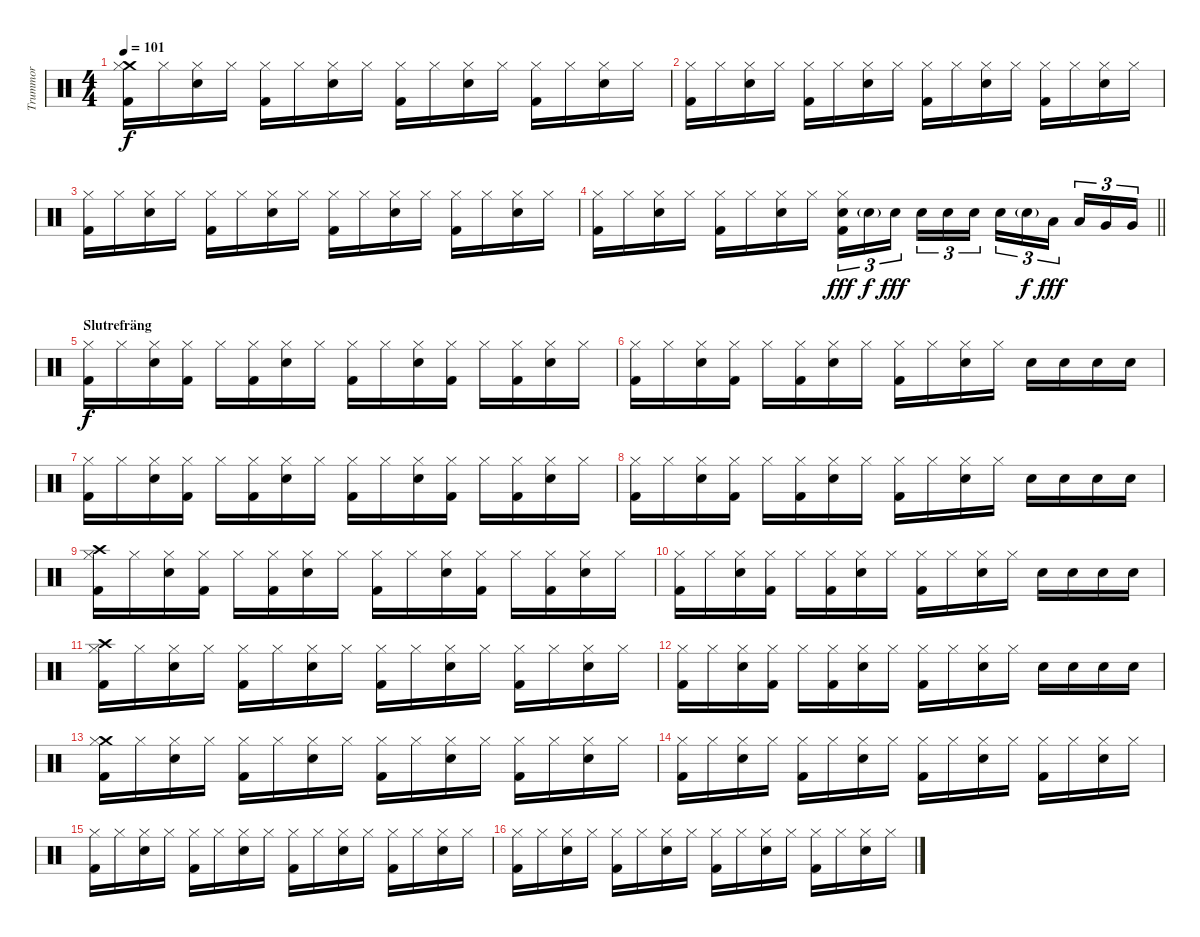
\track ("Trummor" "Trummor") {instrument percussion}
\staff {score}
\articulation defaults
\ts (4 4)
\tempo 101
\clef neutral
\ks c
("Crash medium (hit)" "Hi-Hat (closed)" "Kick (hit) 2").16{dy f} "Hi-Hat (closed)".16 ("Hi-Hat (closed)" "Electric Snare (hit)").16 "Hi-Hat (closed)".16 ("Hi-Hat (closed)" "Kick (hit) 2").16 "Hi-Hat (closed)".16 ("Hi-Hat (closed)" "Electric Snare (hit)").16 "Hi-Hat (closed)".16 ("Hi-Hat (closed)" "Kick (hit) 2").16 "Hi-Hat (closed)".16 ("Hi-Hat (closed)" "Electric Snare (hit)").16 "Hi-Hat (closed)".16 ("Hi-Hat (closed)" "Kick (hit) 2").16 "Hi-Hat (closed)".16 ("Hi-Hat (closed)" "Electric Snare (hit)").16 "Hi-Hat (closed)".16 |
("Hi-Hat (closed)" "Kick (hit) 2").16 "Hi-Hat (closed)".16 ("Hi-Hat (closed)" "Electric Snare (hit)").16 "Hi-Hat (closed)".16 ("Hi-Hat (closed)" "Kick (hit) 2").16 "Hi-Hat (closed)".16 ("Hi-Hat (closed)" "Electric Snare (hit)").16 "Hi-Hat (closed)".16 ("Hi-Hat (closed)" "Kick (hit) 2").16 "Hi-Hat (closed)".16 ("Hi-Hat (closed)" "Electric Snare (hit)").16 "Hi-Hat (closed)".16 ("Hi-Hat (closed)" "Kick (hit) 2").16 "Hi-Hat (closed)".16 ("Hi-Hat (closed)" "Electric Snare (hit)").16 "Hi-Hat (closed)".16 |
("Hi-Hat (closed)" "Kick (hit) 2").16 "Hi-Hat (closed)".16 ("Hi-Hat (closed)" "Electric Snare (hit)").16 "Hi-Hat (closed)".16 ("Hi-Hat (closed)" "Kick (hit) 2").16 "Hi-Hat (closed)".16 ("Hi-Hat (closed)" "Electric Snare (hit)").16 "Hi-Hat (closed)".16 ("Hi-Hat (closed)" "Kick (hit) 2").16 "Hi-Hat (closed)".16 ("Hi-Hat (closed)" "Electric Snare (hit)").16 "Hi-Hat (closed)".16 ("Hi-Hat (closed)" "Kick (hit) 2").16 "Hi-Hat (closed)".16 ("Hi-Hat (closed)" "Electric Snare (hit)").16 "Hi-Hat (closed)".16 |
\barLineRight lightlight
("Hi-Hat (closed)" "Kick (hit) 2").16 "Hi-Hat (closed)".16 ("Hi-Hat (closed)" "Electric Snare (hit)").16 "Hi-Hat (closed)".16 ("Hi-Hat (closed)" "Kick (hit) 2").16 "Hi-Hat (closed)".16 ("Hi-Hat (closed)" "Electric Snare (hit)").16 "Hi-Hat (closed)".16 ("Electric Snare (hit)" "Hi-Hat (closed)" "Kick (hit) 2").16{tu (3 2) dy fff} "Electric Snare (hit)"{g}.16{tu (3 2) dy f} "Electric Snare (hit)".16{tu (3 2) dy fff beam splitsecondary} "Electric Snare (hit)".16{tu (3 2)} "Electric Snare (hit)".16{tu (3 2)} "Electric Snare (hit)".16{tu (3 2)} "Snare (hit) 2".16{tu (3 2)} "Electric Snare (hit)"{g}.16{tu (3 2) dy f} "Low Tom (hit)".16{tu (3 2) dy fff beam splitsecondary} "Low Tom (hit)".16{tu (3 2)} "Very Low Tom (hit)".16{tu (3 2)} "Very Low Tom (hit)".16{tu (3 2)} |
\section ("" "Slutrefräng")
("Hi-Hat (closed)" "Kick (hit) 2").16{dy f} "Hi-Hat (closed)".16 ("Hi-Hat (closed)" "Electric Snare (hit)").16 ("Hi-Hat (closed)" "Kick (hit) 2").16 "Hi-Hat (closed)".16 ("Hi-Hat (closed)" "Kick (hit) 2").16 ("Hi-Hat (closed)" "Electric Snare (hit)").16 "Hi-Hat (closed)".16 ("Hi-Hat (closed)" "Kick (hit) 2").16 "Hi-Hat (closed)".16 ("Hi-Hat (closed)" "Electric Snare (hit)").16 ("Hi-Hat (closed)" "Kick (hit) 2").16 "Hi-Hat (closed)".16 ("Hi-Hat (closed)" "Kick (hit) 2").16 ("Hi-Hat (closed)" "Electric Snare (hit)").16 "Hi-Hat (closed)".16 |
("Hi-Hat (closed)" "Kick (hit) 2").16 "Hi-Hat (closed)".16 ("Hi-Hat (closed)" "Electric Snare (hit)").16 ("Hi-Hat (closed)" "Kick (hit) 2").16 "Hi-Hat (closed)".16 ("Hi-Hat (closed)" "Kick (hit) 2").16 ("Hi-Hat (closed)" "Electric Snare (hit)").16 "Hi-Hat (closed)".16 ("Hi-Hat (closed)" "Kick (hit) 2").16 "Hi-Hat (closed)".16 ("Hi-Hat (closed)" "Electric Snare (hit)").16 "Hi-Hat (closed)".16 "Electric Snare (hit)".16 "Electric Snare (hit)".16 "Electric Snare (hit)".16 "Electric Snare (hit)".16 |
("Hi-Hat (closed)" "Kick (hit) 2").16 "Hi-Hat (closed)".16 ("Hi-Hat (closed)" "Electric Snare (hit)").16 ("Hi-Hat (closed)" "Kick (hit) 2").16 "Hi-Hat (closed)".16 ("Hi-Hat (closed)" "Kick (hit) 2").16 ("Hi-Hat (closed)" "Electric Snare (hit)").16 "Hi-Hat (closed)".16 ("Hi-Hat (closed)" "Kick (hit) 2").16 "Hi-Hat (closed)".16 ("Hi-Hat (closed)" "Electric Snare (hit)").16 ("Hi-Hat (closed)" "Kick (hit) 2").16 "Hi-Hat (closed)".16 ("Hi-Hat (closed)" "Kick (hit) 2").16 ("Hi-Hat (closed)" "Electric Snare (hit)").16 "Hi-Hat (closed)".16 |
("Hi-Hat (closed)" "Kick (hit) 2").16 "Hi-Hat (closed)".16 ("Hi-Hat (closed)" "Electric Snare (hit)").16 ("Hi-Hat (closed)" "Kick (hit) 2").16 "Hi-Hat (closed)".16 ("Hi-Hat (closed)" "Kick (hit) 2").16 ("Hi-Hat (closed)" "Electric Snare (hit)").16 "Hi-Hat (closed)".16 ("Hi-Hat (closed)" "Kick (hit) 2").16 "Hi-Hat (closed)".16 ("Hi-Hat (closed)" "Electric Snare (hit)").16 "Hi-Hat (closed)".16 "Electric Snare (hit)".16 "Electric Snare (hit)".16 "Electric Snare (hit)".16 "Electric Snare (hit)".16 |
("Crash high (hit)" "Hi-Hat (closed)" "Kick (hit) 2").16 "Hi-Hat (closed)".16 ("Hi-Hat (closed)" "Electric Snare (hit)").16 ("Hi-Hat (closed)" "Kick (hit) 2").16 "Hi-Hat (closed)".16 ("Hi-Hat (closed)" "Kick (hit) 2").16 ("Hi-Hat (closed)" "Electric Snare (hit)").16 "Hi-Hat (closed)".16 ("Hi-Hat (closed)" "Kick (hit) 2").16 "Hi-Hat (closed)".16 ("Hi-Hat (closed)" "Electric Snare (hit)").16 ("Hi-Hat (closed)" "Kick (hit) 2").16 "Hi-Hat (closed)".16 ("Hi-Hat (closed)" "Kick (hit) 2").16 ("Hi-Hat (closed)" "Electric Snare (hit)").16 "Hi-Hat (closed)".16 |
("Hi-Hat (closed)" "Kick (hit) 2").16 "Hi-Hat (closed)".16 ("Hi-Hat (closed)" "Electric Snare (hit)").16 ("Hi-Hat (closed)" "Kick (hit) 2").16 "Hi-Hat (closed)".16 ("Hi-Hat (closed)" "Kick (hit) 2").16 ("Hi-Hat (closed)" "Electric Snare (hit)").16 "Hi-Hat (closed)".16 ("Hi-Hat (closed)" "Kick (hit) 2").16 "Hi-Hat (closed)".16 ("Hi-Hat (closed)" "Electric Snare (hit)").16 "Hi-Hat (closed)".16 "Electric Snare (hit)".16 "Electric Snare (hit)".16 "Electric Snare (hit)".16 "Electric Snare (hit)".16 |
("Crash high (hit)" "Hi-Hat (closed)" "Kick (hit) 2").16 "Hi-Hat (closed)".16 ("Hi-Hat (closed)" "Electric Snare (hit)").16 "Hi-Hat (closed)".16 ("Hi-Hat (closed)" "Kick (hit) 2").16 "Hi-Hat (closed)".16 ("Hi-Hat (closed)" "Electric Snare (hit)").16 "Hi-Hat (closed)".16 ("Hi-Hat (closed)" "Kick (hit) 2").16 "Hi-Hat (closed)".16 ("Hi-Hat (closed)" "Electric Snare (hit)").16 "Hi-Hat (closed)".16 ("Hi-Hat (closed)" "Kick (hit) 2").16 "Hi-Hat (closed)".16 ("Hi-Hat (closed)" "Electric Snare (hit)").16 "Hi-Hat (closed)".16 |
("Hi-Hat (closed)" "Kick (hit) 2").16 "Hi-Hat (closed)".16 ("Hi-Hat (closed)" "Electric Snare (hit)").16 ("Hi-Hat (closed)" "Kick (hit) 2").16 "Hi-Hat (closed)".16 ("Hi-Hat (closed)" "Kick (hit) 2").16 ("Hi-Hat (closed)" "Electric Snare (hit)").16 "Hi-Hat (closed)".16 ("Hi-Hat (closed)" "Kick (hit) 2").16 "Hi-Hat (closed)".16 ("Hi-Hat (closed)" "Electric Snare (hit)").16 "Hi-Hat (closed)".16 "Electric Snare (hit)".16 "Electric Snare (hit)".16 "Electric Snare (hit)".16 "Electric Snare (hit)".16 |
("Crash medium (hit)" "Hi-Hat (closed)" "Kick (hit) 2").16 "Hi-Hat (closed)".16 ("Hi-Hat (closed)" "Electric Snare (hit)").16 "Hi-Hat (closed)".16 ("Hi-Hat (closed)" "Kick (hit) 2").16 "Hi-Hat (closed)".16 ("Hi-Hat (closed)" "Electric Snare (hit)").16 "Hi-Hat (closed)".16 ("Hi-Hat (closed)" "Kick (hit) 2").16 "Hi-Hat (closed)".16 ("Hi-Hat (closed)" "Electric Snare (hit)").16 "Hi-Hat (closed)".16 ("Hi-Hat (closed)" "Kick (hit) 2").16 "Hi-Hat (closed)".16 ("Hi-Hat (closed)" "Electric Snare (hit)").16 "Hi-Hat (closed)".16 |
("Hi-Hat (closed)" "Kick (hit) 2").16 "Hi-Hat (closed)".16 ("Hi-Hat (closed)" "Electric Snare (hit)").16 "Hi-Hat (closed)".16 ("Hi-Hat (closed)" "Kick (hit) 2").16 "Hi-Hat (closed)".16 ("Hi-Hat (closed)" "Electric Snare (hit)").16 "Hi-Hat (closed)".16 ("Hi-Hat (closed)" "Kick (hit) 2").16 "Hi-Hat (closed)".16 ("Hi-Hat (closed)" "Electric Snare (hit)").16 "Hi-Hat (closed)".16 ("Hi-Hat (closed)" "Kick (hit) 2").16 "Hi-Hat (closed)".16 ("Hi-Hat (closed)" "Electric Snare (hit)").16 "Hi-Hat (closed)".16 |
("Hi-Hat (closed)" "Kick (hit) 2").16 "Hi-Hat (closed)".16 ("Hi-Hat (closed)" "Electric Snare (hit)").16 "Hi-Hat (closed)".16 ("Hi-Hat (closed)" "Kick (hit) 2").16 "Hi-Hat (closed)".16 ("Hi-Hat (closed)" "Electric Snare (hit)").16 "Hi-Hat (closed)".16 ("Hi-Hat (closed)" "Kick (hit) 2").16 "Hi-Hat (closed)".16 ("Hi-Hat (closed)" "Electric Snare (hit)").16 "Hi-Hat (closed)".16 ("Hi-Hat (closed)" "Kick (hit) 2").16 "Hi-Hat (closed)".16 ("Hi-Hat (closed)" "Electric Snare (hit)").16 "Hi-Hat (closed)".16 |
("Hi-Hat (closed)" "Kick (hit) 2").16 "Hi-Hat (closed)".16 ("Hi-Hat (closed)" "Electric Snare (hit)").16 "Hi-Hat (closed)".16 ("Hi-Hat (closed)" "Kick (hit) 2").16 "Hi-Hat (closed)".16 ("Hi-Hat (closed)" "Electric Snare (hit)").16 "Hi-Hat (closed)".16 ("Hi-Hat (closed)" "Kick (hit) 2").16 "Hi-Hat (closed)".16 ("Hi-Hat (closed)" "Electric Snare (hit)").16 "Hi-Hat (closed)".16 ("Hi-Hat (closed)" "Kick (hit) 2").16 "Hi-Hat (closed)".16 ("Hi-Hat (closed)" "Electric Snare (hit)").16 "Hi-Hat (closed)".16
